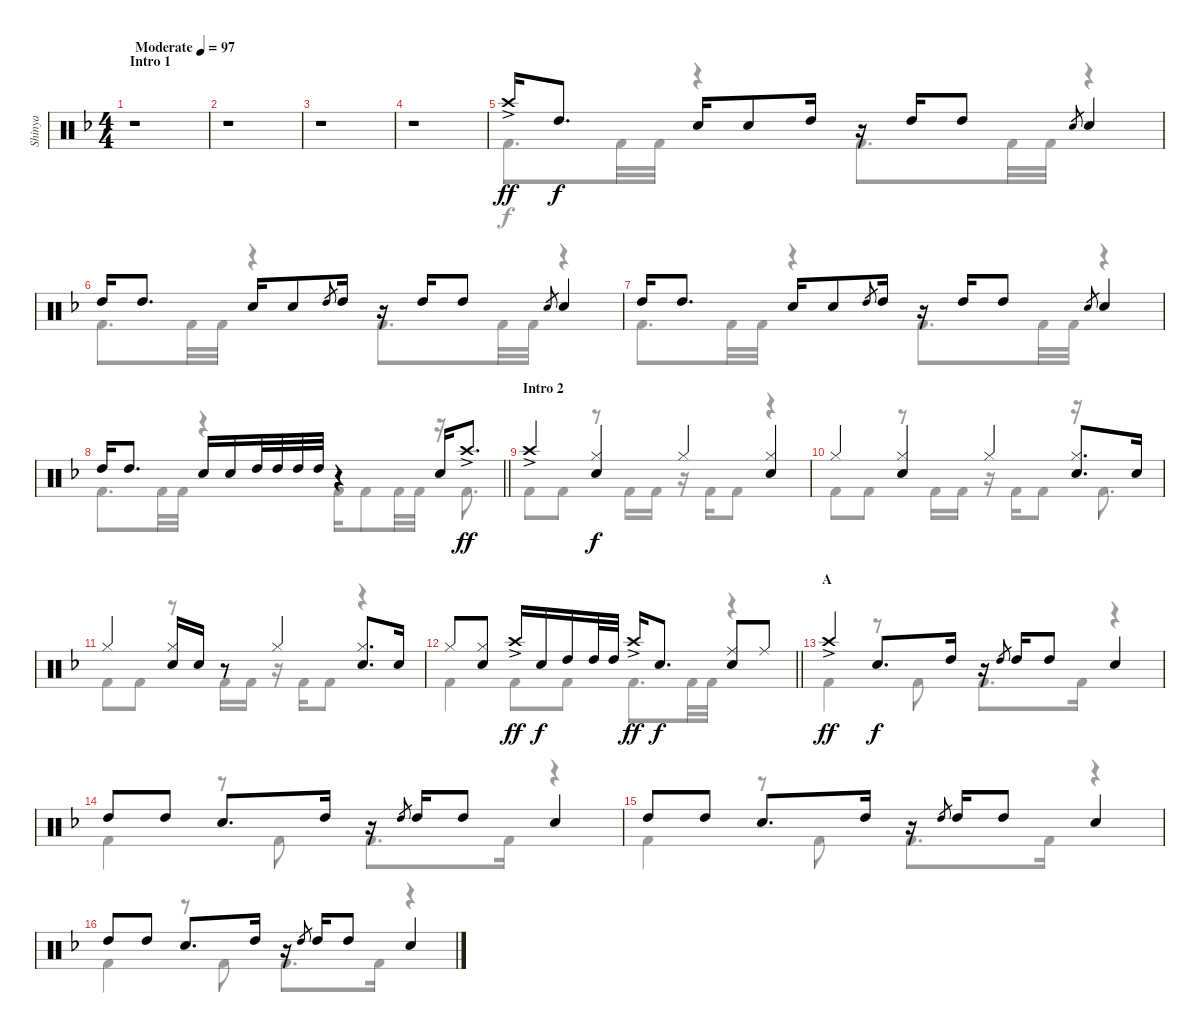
\track ("Shinya" "Shinya") {mute instrument percussion}
\staff {score}
\articulation defaults
\voice
\ts (4 4)
\section ("" "Intro 1")
\tempo (97 "Moderate")
\clef neutral
\ks dminor
r.1{dy ff} |
r.1 |
r.1 |
r.1 |
"Crash high (hit)"{ac}.16 "High Tom (hit)".8{d dy f} "Snare (hit) 2".16 "Snare (hit) 2".8 "High Tom (hit)".16 r.16 "High Tom (hit)".16 "High Tom (hit)".8 "Snare (hit) 2".8{gr} "Snare (hit) 2".4 |
"High Tom (hit)".16 "High Tom (hit)".8{d} "Snare (hit) 2".16 "Snare (hit) 2".8 "High Tom (hit)".8{gr} "High Tom (hit)".16 r.16 "High Tom (hit)".16 "High Tom (hit)".8 "Snare (hit) 2".8{gr} "Snare (hit) 2".4 |
"High Tom (hit)".16 "High Tom (hit)".8{d} "Snare (hit) 2".16 "Snare (hit) 2".8 "High Tom (hit)".8{gr} "High Tom (hit)".16 r.16 "High Tom (hit)".16 "High Tom (hit)".8 "Snare (hit) 2".8{gr} "Snare (hit) 2".4 |
\barLineRight lightlight "High Tom (hit)".16 "High Tom (hit)".8{d} "Snare (hit) 2".16 "Snare (hit) 2".16 "High Tom (hit)".32 "High Tom (hit)".32 "High Tom (hit)".32 "High Tom (hit)".32
r.4 "Snare (hit) 2".16 "Crash high (hit)"{ac}.8{d dy ff} |
\section ("" "Intro 2")
"Crash high (hit)"{ac}.4 ("Hi-Hat (closed)" "Snare (hit) 2").4{dy f} "Hi-Hat (closed)".4 ("Hi-Hat (closed)" "Snare (hit) 2").4 |
"Hi-Hat (closed)".4 ("Hi-Hat (closed)" "Snare (hit) 2").4 "Hi-Hat (closed)".4 ("Hi-Hat (closed)" "Snare (hit) 2").8{d} "Snare (hit) 2".16 |
"Hi-Hat (closed)".4 ("Hi-Hat (closed)" "Snare (hit) 2").16 "Snare (hit) 2".16 r.8 "Hi-Hat (closed)".4 ("Hi-Hat (closed)" "Snare (hit) 2").8{d} "Snare (hit) 2".16 |
\barLineRight lightlight "Hi-Hat (closed)".8
("Hi-Hat (closed)" "Snare (hit) 2").8 "Crash high (hit)"{ac}.16{dy ff} "Snare (hit) 2".16{dy f} "High Tom (hit)".16 "High Tom (hit)".32 "High Tom (hit)".32 "Crash high (hit)"{ac}.16{dy ff} "Snare (hit) 2".8{d dy f} ("Ride (middle)" "Snare (hit) 2").8 "Ride (middle)".8 |
\section ("" "A")
"Crash high (hit)"{ac}.4{dy ff} "Snare (hit) 2".8{d dy f} "High Tom (hit)".16 r.16 "High Tom (hit)".8{gr} "High Tom (hit)".16 "High Tom (hit)".8 "Snare (hit) 2".4 |
"High Tom (hit)".8 "High Tom (hit)".8 "Snare (hit) 2".8{d} "High Tom (hit)".16 r.16 "High Tom (hit)".8{gr} "High Tom (hit)".16 "High Tom (hit)".8 "Snare (hit) 2".4 |
"High Tom (hit)".8 "High Tom (hit)".8 "Snare (hit) 2".8{d} "High Tom (hit)".16 r.16 "High Tom (hit)".8{gr} "High Tom (hit)".16 "High Tom (hit)".8 "Snare (hit) 2".4 |
"High Tom (hit)".8 "High Tom (hit)".8 "Snare (hit) 2".8{d} "High Tom (hit)".16 r.16 "High Tom (hit)".8{gr} "High Tom (hit)".16 "High Tom (hit)".8 "Snare (hit) 2".4
\voice
\clef neutral
\ottava regular
\simile none
\ks dminor
r.1{dy f} |
r.1 |
r.1 |
r.1 |
"Kick (hit) 2".8{d} "Kick (hit) 2".32 "Kick (hit) 2".32 r.4 "Kick (hit) 2".8{d} "Kick (hit) 2".32 "Kick (hit) 2".32 r.4 |
"Kick (hit) 2".8{d} "Kick (hit) 2".32 "Kick (hit) 2".32 r.4 "Kick (hit) 2".8{d} "Kick (hit) 2".32 "Kick (hit) 2".32 r.4 |
"Kick (hit) 2".8{d} "Kick (hit) 2".32 "Kick (hit) 2".32 r.4 "Kick (hit) 2".8{d} "Kick (hit) 2".32 "Kick (hit) 2".32 r.4 |
\barLineRight lightlight "Kick (hit) 2".8{d} "Kick (hit) 2".32 "Kick (hit) 2".32
r.4 "Kick (hit) 2".16 "Kick (hit) 2".8 "Kick (hit) 2".32 "Kick (hit) 2".32 r.16 "Kick (hit) 2".8{d} |
"Kick (hit) 2".8 "Kick (hit) 2".8 r.8 "Kick (hit) 2".16 "Kick (hit) 2".16 r.16 "Kick (hit) 2".16 "Kick (hit) 2".8 r.4 |
"Kick (hit) 2".8 "Kick (hit) 2".8 r.8 "Kick (hit) 2".16 "Kick (hit) 2".16 r.16 "Kick (hit) 2".16 "Kick (hit) 2".8 r.16 "Kick (hit) 2".8{d} |
"Kick (hit) 2".8 "Kick (hit) 2".8 r.8 "Kick (hit) 2".16 "Kick (hit) 2".16 r.16 "Kick (hit) 2".16 "Kick (hit) 2".8 r.4 |
\barLineRight lightlight "Kick (hit) 2".4 "Kick (hit) 2".8 "Kick (hit) 2".8 "Kick (hit) 2".8{d} "Kick (hit) 2".32 "Kick (hit) 2".32
r.4 |
"Kick (hit) 2".4 r.8 "Kick (hit) 2".8 "Kick (hit) 2".8{d} "Kick (hit) 2".16 r.4 |
"Kick (hit) 2".4 r.8 "Kick (hit) 2".8 "Kick (hit) 2".8{d} "Kick (hit) 2".16 r.4 |
"Kick (hit) 2".4 r.8 "Kick (hit) 2".8 "Kick (hit) 2".8{d} "Kick (hit) 2".16 r.4 |
"Kick (hit) 2".4 r.8 "Kick (hit) 2".8 "Kick (hit) 2".8{d} "Kick (hit) 2".16 r.4
